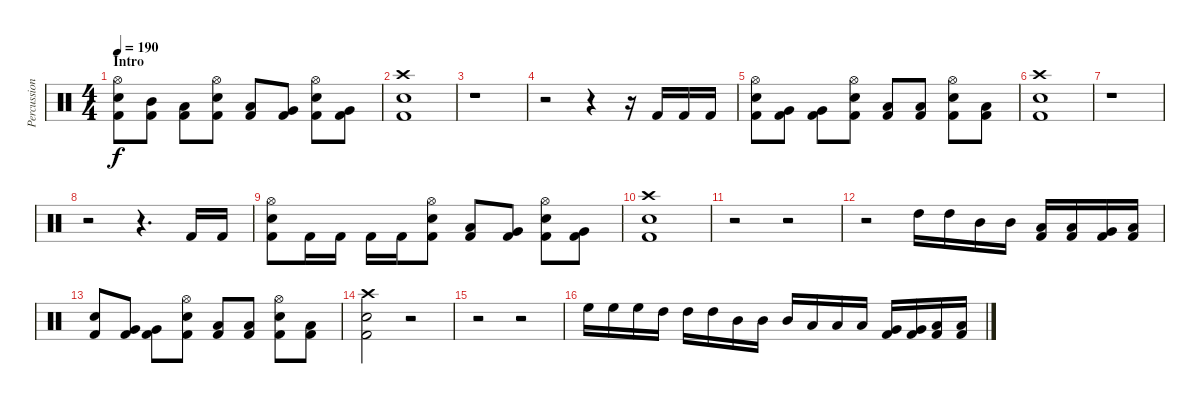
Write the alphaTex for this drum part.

\track ("Percussion" "Percussion") {instrument percussion}
\staff {score}
\articulation defaults
\ts (4 4)
\section ("" "Intro")
\tempo 190
\clef neutral
\ks c
("Hi-Hat (open)" "Snare (hit) 2" "Kick (hit) 2").8{dy f} ("Mid Tom (hit)" "Kick (hit) 2").8 ("Low Tom (hit)" "Kick (hit) 2").8 ("Hi-Hat (open)" "Snare (hit) 2" "Kick (hit) 2").8 ("Low Tom (hit)" "Kick (hit) 2").8 ("Very Low Tom (hit)" "Kick (hit) 2").8 ("Hi-Hat (open)" "Snare (hit) 2" "Kick (hit) 2").8 ("Very Low Tom (hit)" "Kick (hit) 2").8 |
("Crash high (hit)" "Snare (hit) 2" "Kick (hit) 2").1 |
r.1 |
r.2 r.4 r.16 "Kick (hit) 2".16 "Kick (hit) 2".16 "Kick (hit) 2".16 |
("Hi-Hat (open)" "Snare (hit) 2" "Kick (hit) 2").8 ("Very Low Tom (hit)" "Kick (hit) 2").8 ("Very Low Tom (hit)" "Kick (hit) 2").8 ("Hi-Hat (open)" "Snare (hit) 2" "Kick (hit) 2").8 ("Low Floor Tom (hit)" "Kick (hit) 2").8 ("Low Floor Tom (hit)" "Kick (hit) 2").8 ("Hi-Hat (open)" "Snare (hit) 2" "Kick (hit) 2").8 ("Low Floor Tom (hit)" "Kick (hit) 2").8 |
("Crash high (hit)" "Snare (hit) 2" "Kick (hit) 2").1 |
r.1 |
r.2 r.4{d} "Kick (hit) 2".16 "Kick (hit) 2".16 |
("Hi-Hat (open)" "Snare (hit) 2" "Kick (hit) 2").8 "Kick (hit) 2".16 "Kick (hit) 2".16 "Kick (hit) 2".16 "Kick (hit) 2".16 ("Hi-Hat (open)" "Snare (hit) 2" "Kick (hit) 2").8 ("Low Tom (hit)" "Kick (hit) 2").8 ("Very Low Tom (hit)" "Kick (hit) 2").8 ("Hi-Hat (open)" "Snare (hit) 2" "Kick (hit) 2").8 ("Very Low Tom (hit)" "Kick (hit) 2").8 |
("Crash high (hit)" "Snare (hit) 2" "Kick (hit) 2").1 |
r.2 r.2 |
r.2 "High Tom (hit)".16 "High Tom (hit)".16 "Mid Tom (hit)".16 "Mid Tom (hit)".16 ("Low Tom (hit)" "Kick (hit) 2").16 ("Low Tom (hit)" "Kick (hit) 2").16 ("Very Low Tom (hit)" "Kick (hit) 2").16 ("Low Floor Tom (hit)" "Kick (hit) 2").16 |
("Snare (hit) 2" "Kick (hit) 2").8 ("Very Low Tom (hit)" "Kick (hit) 2").8 ("Very Low Tom (hit)" "Kick (hit) 2").8 ("Hi-Hat (open)" "Snare (hit) 2" "Kick (hit) 2").8 ("Low Floor Tom (hit)" "Kick (hit) 2").8 ("Low Floor Tom (hit)" "Kick (hit) 2").8 ("Hi-Hat (open)" "Snare (hit) 2" "Kick (hit) 2").8 ("Low Floor Tom (hit)" "Kick (hit) 2").8 |
("Crash high (hit)" "Snare (hit) 2" "Kick (hit) 2").2 r.2 |
r.2 r.2 |
"High Floor Tom (hit)".16 "High Floor Tom (hit)".16 "High Floor Tom (hit)".16 "High Tom (hit)".16 "High Tom (hit)".16 "High Tom (hit)".16 "Mid Tom (hit)".16 "Mid Tom (hit)".16 "Mid Tom (hit)".16 "Low Tom (hit)".16 "Low Tom (hit)".16 "Low Tom (hit)".16 ("Very Low Tom (hit)" "Kick (hit) 2").16 ("Very Low Tom (hit)" "Kick (hit) 2").16 ("Low Floor Tom (hit)" "Kick (hit) 2").16 ("Low Floor Tom (hit)" "Kick (hit) 2").16
